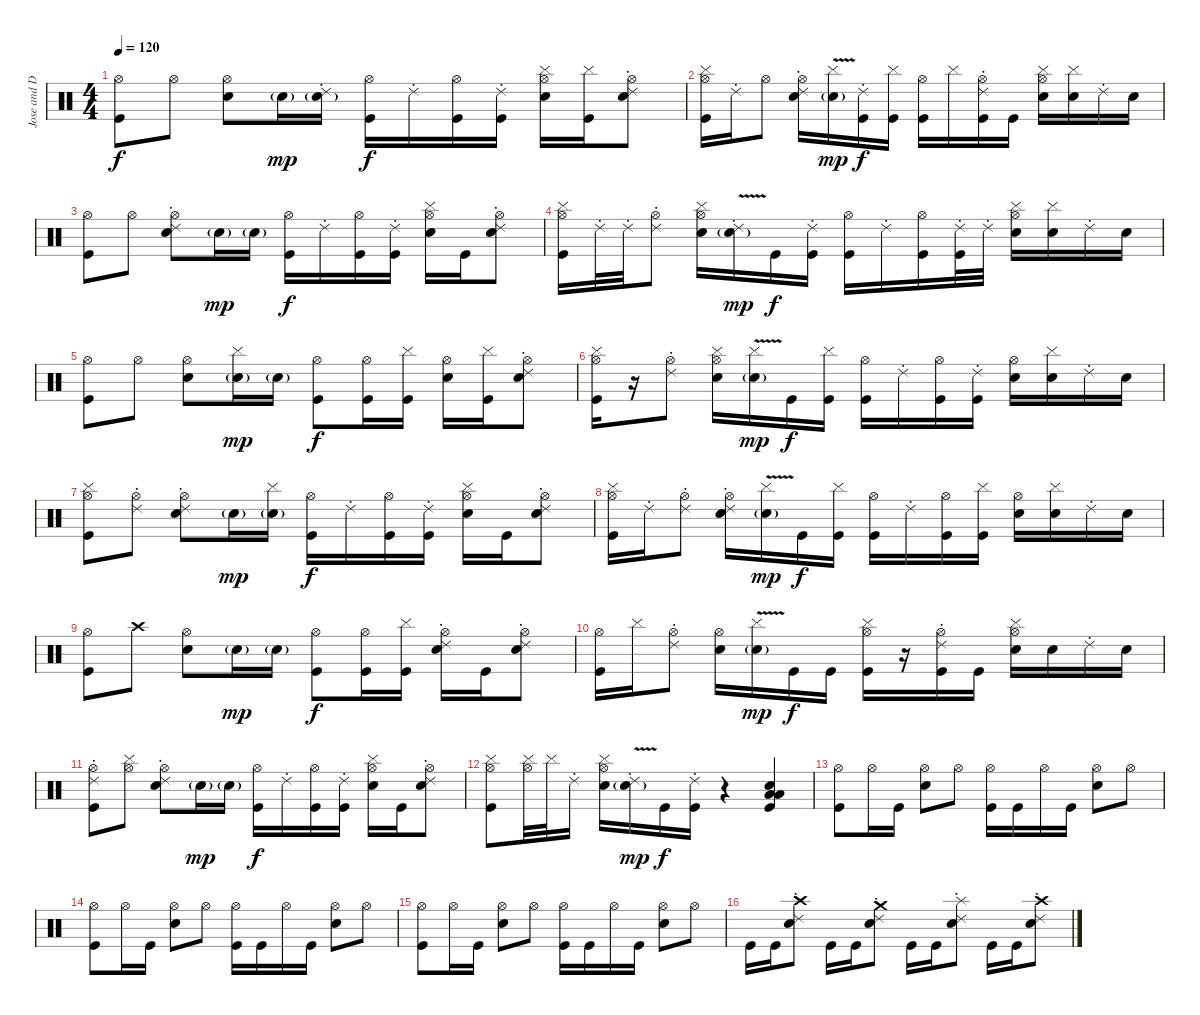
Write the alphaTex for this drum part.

\track ("Jose and Dj" "Jose and D") {instrument percussion}
\staff {score}
\articulation defaults
\ts (4 4)
\tempo 120
\clef neutral
\ks c
("Hi-Hat (open)" "Kick (hit)").8{dy f} "Hi-Hat (open)".8 ("Hi-Hat (open)" "Snare (hit) 2").8 "Snare (hit) 2"{g}.16{dy mp} ("Snare (hit) 2"{g} "Ride (choke) 2").16 ("Hi-Hat (open)" "Kick (hit)").16{dy f} "Ride (choke) 2".16 ("Hi-Hat (open)" "Kick (hit)").16 ("Ride (choke) 2" "Kick (hit)").16 ("Hi-Hat (open)" "Snare (hit) 2" "Cymbal (hit)").16 ("Cymbal (hit)" "Kick (hit)").16 ("Hi-Hat (open)" "Snare (hit) 2" "Ride (choke) 2").8 |
("Hi-Hat (open)" "Cymbal (hit)" "Kick (hit)").16 "Ride (choke) 2".16 "Hi-Hat (open)".8 ("Hi-Hat (open)" "Snare (hit) 2" "Ride (choke) 2").16 ("Snare (hit) 2"{v g} "Cymbal (hit)"{v}).16{dy mp} ("Ride (choke) 2" "Kick (hit)").16{dy f} ("Cymbal (hit)" "Kick (hit)").16 ("Hi-Hat (open)" "Kick (hit)").16 "Cymbal (hit)".16 ("Hi-Hat (open)" "Ride (choke) 2" "Kick (hit)").16 "Kick (hit)".16 ("Hi-Hat (open)" "Snare (hit) 2" "Cymbal (hit)").16 ("Snare (hit) 2" "Cymbal (hit)").16 "Ride (choke) 2".16 "Snare (hit) 2".16 |
("Hi-Hat (open)" "Kick (hit)").8 "Hi-Hat (open)".8 ("Hi-Hat (open)" "Snare (hit) 2" "Ride (choke) 2").8 "Snare (hit) 2"{g}.16{dy mp} "Snare (hit) 2"{g}.16 ("Hi-Hat (open)" "Kick (hit)").16{dy f} "Ride (choke) 2".16 ("Hi-Hat (open)" "Kick (hit)").16 ("Ride (choke) 2" "Kick (hit)").16 ("Hi-Hat (open)" "Snare (hit) 2" "Cymbal (hit)").16 "Kick (hit)".16 ("Hi-Hat (open)" "Snare (hit) 2" "Ride (choke) 2").8 |
("Hi-Hat (open)" "Cymbal (hit)" "Kick (hit)").16 "Ride (choke) 2".32 "Ride (choke) 2".32 ("Hi-Hat (open)" "Ride (choke) 2").8 ("Hi-Hat (open)" "Snare (hit) 2" "Cymbal (hit)").16 ("Snare (hit) 2"{v g} "Ride (choke) 2"{v}).16{dy mp} "Kick (hit)".16{dy f} ("Ride (choke) 2" "Kick (hit)").16 ("Hi-Hat (open)" "Kick (hit)").16 "Ride (choke) 2".16 ("Hi-Hat (open)" "Kick (hit)").16 ("Ride (choke) 2" "Kick (hit)").32 "Ride (choke) 2".32 ("Hi-Hat (open)" "Snare (hit) 2" "Cymbal (hit)").16 ("Snare (hit) 2" "Cymbal (hit)").16 "Ride (choke) 2".16 "Snare (hit) 2".16 |
("Hi-Hat (open)" "Kick (hit)").8 "Hi-Hat (open)".8 ("Hi-Hat (open)" "Snare (hit) 2").8 ("Snare (hit) 2"{g} "Cymbal (hit)").16{dy mp} "Snare (hit) 2"{g}.16 ("Hi-Hat (open)" "Kick (hit)").8{dy f} ("Hi-Hat (open)" "Kick (hit)").16 ("Cymbal (hit)" "Kick (hit)").16 ("Hi-Hat (open)" "Snare (hit) 2").16 ("Cymbal (hit)" "Kick (hit)").16 ("Hi-Hat (open)" "Snare (hit) 2" "Ride (choke) 2").8 |
("Hi-Hat (open)" "Cymbal (hit)" "Kick (hit)").16 r.16 ("Hi-Hat (open)" "Ride (choke) 2").8 ("Hi-Hat (open)" "Snare (hit) 2" "Cymbal (hit)").16 ("Snare (hit) 2"{v g} "Cymbal (hit)"{v}).16{dy mp} "Kick (hit)".16{dy f} ("Cymbal (hit)" "Kick (hit)").16 ("Hi-Hat (open)" "Kick (hit)").16 "Ride (choke) 2".16 ("Hi-Hat (open)" "Kick (hit)").16 ("Ride (choke) 2" "Kick (hit)").16 ("Hi-Hat (open)" "Snare (hit) 2").16 ("Snare (hit) 2" "Cymbal (hit)").16 "Ride (choke) 2".16 "Snare (hit) 2".16 |
("Hi-Hat (open)" "Cymbal (hit)" "Kick (hit)").8 ("Hi-Hat (open)" "Ride (choke) 2").8 ("Hi-Hat (open)" "Snare (hit) 2" "Ride (choke) 2").8 "Snare (hit) 2"{g}.16{dy mp} ("Snare (hit) 2"{g} "Cymbal (hit)").16 ("Hi-Hat (open)" "Kick (hit)").16{dy f} "Ride (choke) 2".16 ("Hi-Hat (open)" "Kick (hit)").16 ("Ride (choke) 2" "Kick (hit)").16 ("Hi-Hat (open)" "Snare (hit) 2" "Cymbal (hit)").16 "Kick (hit)".16 ("Hi-Hat (open)" "Snare (hit) 2" "Ride (choke) 2").8 |
("Hi-Hat (open)" "Cymbal (hit)" "Kick (hit)").16 "Ride (choke) 2".16 ("Hi-Hat (open)" "Ride (choke) 2").8 ("Hi-Hat (open)" "Snare (hit) 2" "Ride (choke) 2").16 ("Snare (hit) 2"{v g} "Cymbal (hit)"{v}).16{dy mp} "Kick (hit)".16{dy f} ("Cymbal (hit)" "Kick (hit)").16 ("Hi-Hat (open)" "Kick (hit)").16 "Ride (choke) 2".16 ("Hi-Hat (open)" "Kick (hit)").16 ("Cymbal (hit)" "Kick (hit)").16 ("Hi-Hat (open)" "Snare (hit) 2").16 ("Snare (hit) 2" "Cymbal (hit)").16 "Ride (choke) 2".16 "Snare (hit) 2".16 |
("Hi-Hat (open)" "Kick (hit)").8 "Crash high (hit)".8 ("Hi-Hat (open)" "Snare (hit) 2").8 "Snare (hit) 2"{g}.16{dy mp} "Snare (hit) 2"{g}.16 ("Hi-Hat (open)" "Kick (hit)").8{dy f} ("Hi-Hat (open)" "Kick (hit)").16 ("Cymbal (hit)" "Kick (hit)").16 ("Hi-Hat (open)" "Snare (hit) 2" "Ride (choke) 2").16 "Kick (hit)".16 ("Hi-Hat (open)" "Snare (hit) 2" "Ride (choke) 2").8 |
("Hi-Hat (open)" "Kick (hit)").16 "Cymbal (hit)".16 ("Hi-Hat (open)" "Ride (choke) 2").8 ("Hi-Hat (open)" "Snare (hit) 2").16 ("Snare (hit) 2"{v g} "Cymbal (hit)"{v}).16{dy mp} "Kick (hit)".16{dy f} "Kick (hit)".16 ("Hi-Hat (open)" "Cymbal (hit)" "Kick (hit)").16 r.16 ("Hi-Hat (open)" "Ride (choke) 2" "Kick (hit)").16 "Kick (hit)".16 ("Hi-Hat (open)" "Snare (hit) 2" "Cymbal (hit)").16 "Snare (hit) 2".16 "Ride (choke) 2".16 "Snare (hit) 2".16 |
("Hi-Hat (open)" "Ride (choke) 2" "Kick (hit)").8 ("Hi-Hat (open)" "Cymbal (hit)").8 ("Hi-Hat (open)" "Snare (hit) 2" "Ride (choke) 2").8 "Snare (hit) 2"{g}.16{dy mp} "Snare (hit) 2"{g}.16 ("Hi-Hat (open)" "Kick (hit)").16{dy f} "Ride (choke) 2".16 ("Hi-Hat (open)" "Kick (hit)").16 ("Ride (choke) 2" "Kick (hit)").16 ("Hi-Hat (open)" "Snare (hit) 2" "Cymbal (hit)").16 "Kick (hit)".16 ("Hi-Hat (open)" "Snare (hit) 2" "Ride (choke) 2").8 |
("Hi-Hat (open)" "Cymbal (hit)" "Kick (hit)").8 ("Hi-Hat (open)" "Cymbal (hit)").32 "Cymbal (hit)".32 "Ride (choke) 2".16 ("Hi-Hat (open)" "Snare (hit) 2" "Cymbal (hit)").16 ("Snare (hit) 2"{v g} "Ride (choke) 2"{v}).16{dy mp} "Kick (hit)".16{dy f} ("Ride (choke) 2" "Kick (hit)").16 r.4 ("Snare (hit) 2" "Low Floor Tom (hit)" "Low Floor Tom (hit)" "Kick (hit)").4 |
("Hi-Hat (open)" "Kick (hit)").8 "Hi-Hat (open)".16 "Kick (hit)".16 ("Hi-Hat (open)" "Snare (hit) 2").8 "Hi-Hat (open)".8 ("Hi-Hat (open)" "Kick (hit)").16 "Kick (hit)".16 "Hi-Hat (open)".16 "Kick (hit)".16 ("Hi-Hat (open)" "Snare (hit) 2").8 "Hi-Hat (open)".8 |
("Hi-Hat (open)" "Kick (hit)").8 "Hi-Hat (open)".16 "Kick (hit)".16 ("Hi-Hat (open)" "Snare (hit) 2").8 "Hi-Hat (open)".8 ("Hi-Hat (open)" "Kick (hit)").16 "Kick (hit)".16 "Hi-Hat (open)".16 "Kick (hit)".16 ("Hi-Hat (open)" "Snare (hit) 2").8 "Hi-Hat (open)".8 |
("Hi-Hat (open)" "Kick (hit)").8 "Hi-Hat (open)".16 "Kick (hit)".16 ("Hi-Hat (open)" "Snare (hit) 2").8 "Hi-Hat (open)".8 ("Hi-Hat (open)" "Kick (hit)").16 "Kick (hit)".16 "Hi-Hat (open)".16 "Kick (hit)".16 ("Hi-Hat (open)" "Snare (hit) 2").8 "Hi-Hat (open)".8 |
"Kick (hit)".16 "Kick (hit)".16 ("Crash high (hit)" "Snare (hit) 2" "Ride (choke) 2").8 "Kick (hit)".16 "Kick (hit)".16 ("Crash medium (hit)" "Snare (hit) 2" "Ride (choke) 2").8 "Kick (hit)".16 "Kick (hit)".16 ("Splash (hit)" "Snare (hit) 2" "Ride (choke) 2").8 "Kick (hit)".16 "Kick (hit)".16 ("Crash high (hit)" "Snare (hit) 2" "Ride (choke) 2").8
